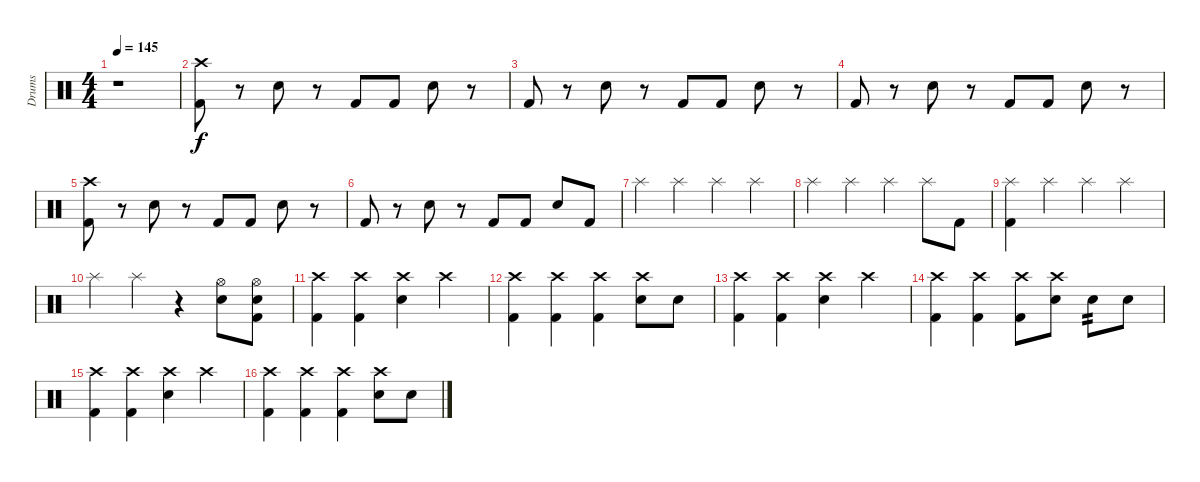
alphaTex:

\track ("Drums" "Drums") {instrument percussion}
\staff {score}
\articulation defaults
\ts (4 4)
\tempo 145
\clef neutral
\ks c
r.1{dy f} |
("Crash high (hit)" "Kick (hit) 2").8 r.8 "Electric Snare (hit)".8 r.8 "Kick (hit) 2".8 "Kick (hit) 2".8 "Electric Snare (hit)".8 r.8 |
"Kick (hit) 2".8 r.8 "Electric Snare (hit)".8 r.8 "Kick (hit) 2".8 "Kick (hit) 2".8 "Electric Snare (hit)".8 r.8 |
"Kick (hit) 2".8 r.8 "Electric Snare (hit)".8 r.8 "Kick (hit) 2".8 "Kick (hit) 2".8 "Electric Snare (hit)".8 r.8 |
("Crash high (hit)" "Kick (hit) 2").8 r.8 "Electric Snare (hit)".8 r.8 "Kick (hit) 2".8 "Kick (hit) 2".8 "Electric Snare (hit)".8 r.8 |
"Kick (hit) 2".8 r.8 "Electric Snare (hit)".8 r.8 "Kick (hit) 2".8 "Kick (hit) 2".8 "Electric Snare (hit)".8 "Kick (hit) 2".8 |
"Splash (hit)".4 "Splash (hit)".4 "Splash (hit)".4 "Splash (hit)".4 |
"Splash (hit)".4 "Splash (hit)".4 "Splash (hit)".4 "Splash (hit)".8 "Kick (hit) 2".8 |
("Splash (hit)" "Kick (hit) 2").4 "Splash (hit)".4 "Splash (hit)".4 "Splash (hit)".4 |
"Splash (hit)".4 "Splash (hit)".4 r.4 ("Hi-Hat (open)" "Electric Snare (hit)").8 ("Hi-Hat (open)" "Electric Snare (hit)" "Kick (hit) 2").8 |
("Crash high (hit)" "Kick (hit) 2").4 ("Crash high (hit)" "Kick (hit) 2").4 ("Crash high (hit)" "Electric Snare (hit)").4 "Crash high (hit)".4 |
("Crash high (hit)" "Kick (hit) 2").4 ("Crash high (hit)" "Kick (hit) 2").4 ("Crash high (hit)" "Kick (hit) 2").4 ("Crash high (hit)" "Electric Snare (hit)").8 "Electric Snare (hit)".8 |
("Crash high (hit)" "Kick (hit) 2").4 ("Crash high (hit)" "Kick (hit) 2").4 ("Crash high (hit)" "Electric Snare (hit)").4 "Crash high (hit)".4 |
("Crash high (hit)" "Kick (hit) 2").4 ("Crash high (hit)" "Kick (hit) 2").4 ("Crash high (hit)" "Kick (hit) 2").8 ("Crash high (hit)" "Electric Snare (hit)").8 "Electric Snare (hit)".8{tp 2} "Electric Snare (hit)".8 |
("Crash high (hit)" "Kick (hit) 2").4 ("Crash high (hit)" "Kick (hit) 2").4 ("Crash high (hit)" "Electric Snare (hit)").4 "Crash high (hit)".4 |
("Crash high (hit)" "Kick (hit) 2").4 ("Crash high (hit)" "Kick (hit) 2").4 ("Crash high (hit)" "Kick (hit) 2").4 ("Crash high (hit)" "Electric Snare (hit)").8 "Electric Snare (hit)".8
